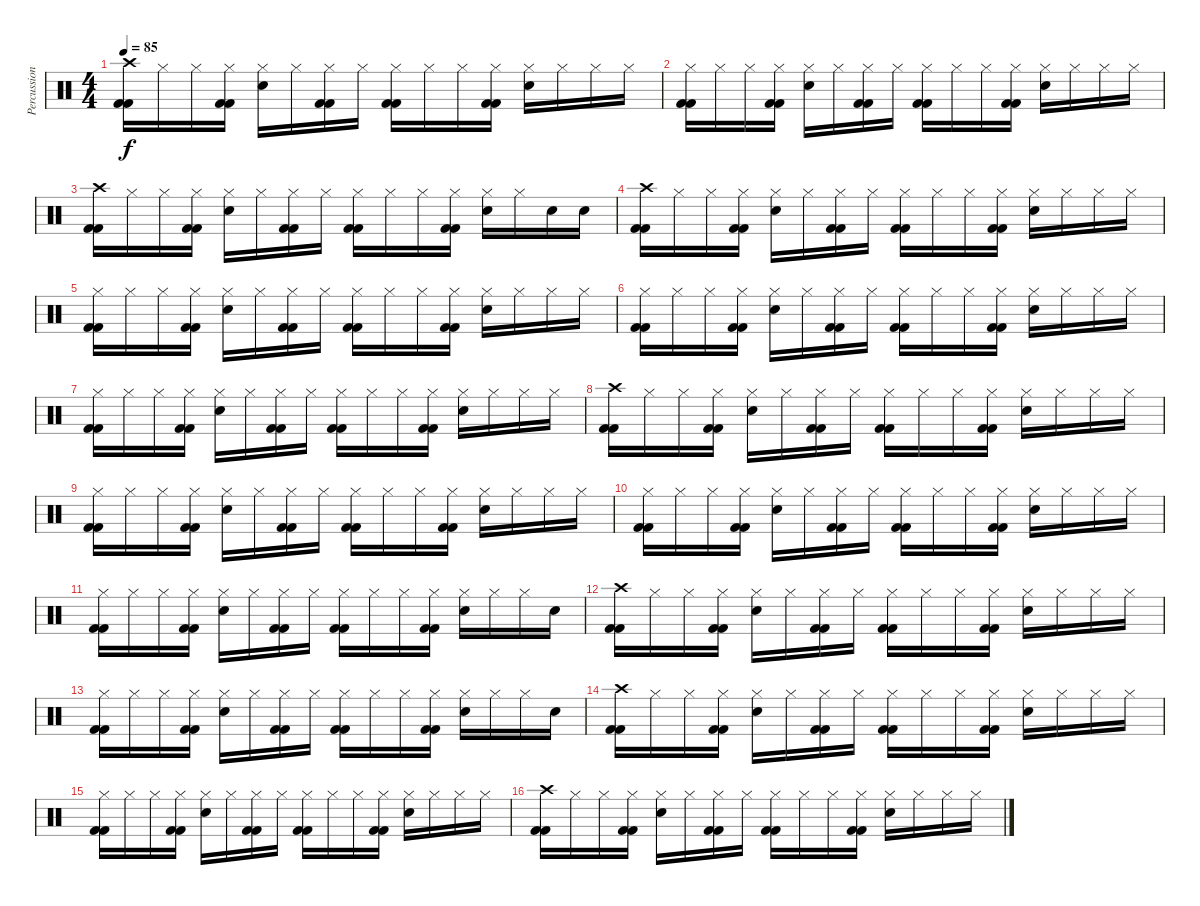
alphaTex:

\track ("Percussion" "Percussion") {instrument percussion}
\staff {score}
\articulation defaults
\ts (4 4)
\tempo 85
\clef neutral
\ks c
("Crash high (hit)" "Kick (hit) 2" "Kick (hit) 2").16{dy f} "Hi-Hat (closed)".16 "Hi-Hat (closed)".16 ("Kick (hit) 2" "Hi-Hat (closed)" "Kick (hit) 2").16 ("Hi-Hat (closed)" "Electric Snare (hit)").16 "Hi-Hat (closed)".16 ("Kick (hit) 2" "Hi-Hat (closed)" "Kick (hit) 2").16 "Hi-Hat (closed)".16 ("Kick (hit) 2" "Hi-Hat (closed)" "Kick (hit) 2").16 "Hi-Hat (closed)".16 "Hi-Hat (closed)".16 ("Kick (hit) 2" "Hi-Hat (closed)" "Kick (hit) 2").16 ("Hi-Hat (closed)" "Electric Snare (hit)").16 "Hi-Hat (closed)".16 "Hi-Hat (closed)".16 "Hi-Hat (closed)".16 |
("Kick (hit) 2" "Hi-Hat (closed)" "Kick (hit) 2").16 "Hi-Hat (closed)".16 "Hi-Hat (closed)".16 ("Kick (hit) 2" "Hi-Hat (closed)" "Kick (hit) 2").16 ("Hi-Hat (closed)" "Electric Snare (hit)").16 "Hi-Hat (closed)".16 ("Kick (hit) 2" "Hi-Hat (closed)" "Kick (hit) 2").16 "Hi-Hat (closed)".16 ("Kick (hit) 2" "Hi-Hat (closed)" "Kick (hit) 2").16 "Hi-Hat (closed)".16 "Hi-Hat (closed)".16 ("Kick (hit) 2" "Hi-Hat (closed)" "Kick (hit) 2").16 ("Hi-Hat (closed)" "Electric Snare (hit)").16 "Hi-Hat (closed)".16 "Hi-Hat (closed)".16 "Hi-Hat (closed)".16 |
("Crash high (hit)" "Kick (hit) 2" "Kick (hit) 2").16 "Hi-Hat (closed)".16 "Hi-Hat (closed)".16 ("Kick (hit) 2" "Hi-Hat (closed)" "Kick (hit) 2").16 ("Hi-Hat (closed)" "Electric Snare (hit)").16 "Hi-Hat (closed)".16 ("Kick (hit) 2" "Hi-Hat (closed)" "Kick (hit) 2").16 "Hi-Hat (closed)".16 ("Kick (hit) 2" "Hi-Hat (closed)" "Kick (hit) 2").16 "Hi-Hat (closed)".16 "Hi-Hat (closed)".16 ("Kick (hit) 2" "Hi-Hat (closed)" "Kick (hit) 2").16 ("Hi-Hat (closed)" "Electric Snare (hit)").16 "Hi-Hat (closed)".16 "Electric Snare (hit)".16 "Electric Snare (hit)".16 |
("Crash high (hit)" "Kick (hit) 2" "Kick (hit) 2").16 "Hi-Hat (closed)".16 "Hi-Hat (closed)".16 ("Kick (hit) 2" "Hi-Hat (closed)" "Kick (hit) 2").16 ("Hi-Hat (closed)" "Electric Snare (hit)").16 "Hi-Hat (closed)".16 ("Kick (hit) 2" "Hi-Hat (closed)" "Kick (hit) 2").16 "Hi-Hat (closed)".16 ("Kick (hit) 2" "Hi-Hat (closed)" "Kick (hit) 2").16 "Hi-Hat (closed)".16 "Hi-Hat (closed)".16 ("Kick (hit) 2" "Hi-Hat (closed)" "Kick (hit) 2").16 ("Hi-Hat (closed)" "Electric Snare (hit)").16 "Hi-Hat (closed)".16 "Hi-Hat (closed)".16 "Hi-Hat (closed)".16 |
("Kick (hit) 2" "Hi-Hat (closed)" "Kick (hit) 2").16 "Hi-Hat (closed)".16 "Hi-Hat (closed)".16 ("Kick (hit) 2" "Hi-Hat (closed)" "Kick (hit) 2").16 ("Hi-Hat (closed)" "Electric Snare (hit)").16 "Hi-Hat (closed)".16 ("Kick (hit) 2" "Hi-Hat (closed)" "Kick (hit) 2").16 "Hi-Hat (closed)".16 ("Kick (hit) 2" "Hi-Hat (closed)" "Kick (hit) 2").16 "Hi-Hat (closed)".16 "Hi-Hat (closed)".16 ("Kick (hit) 2" "Hi-Hat (closed)" "Kick (hit) 2").16 ("Hi-Hat (closed)" "Electric Snare (hit)").16 "Hi-Hat (closed)".16 "Hi-Hat (closed)".16 "Hi-Hat (closed)".16 |
("Kick (hit) 2" "Hi-Hat (closed)" "Kick (hit) 2").16 "Hi-Hat (closed)".16 "Hi-Hat (closed)".16 ("Kick (hit) 2" "Hi-Hat (closed)" "Kick (hit) 2").16 ("Hi-Hat (closed)" "Electric Snare (hit)").16 "Hi-Hat (closed)".16 ("Kick (hit) 2" "Hi-Hat (closed)" "Kick (hit) 2").16 "Hi-Hat (closed)".16 ("Kick (hit) 2" "Hi-Hat (closed)" "Kick (hit) 2").16 "Hi-Hat (closed)".16 "Hi-Hat (closed)".16 ("Kick (hit) 2" "Hi-Hat (closed)" "Kick (hit) 2").16 ("Hi-Hat (closed)" "Electric Snare (hit)").16 "Hi-Hat (closed)".16 "Hi-Hat (closed)".16 "Hi-Hat (closed)".16 |
("Kick (hit) 2" "Hi-Hat (closed)" "Kick (hit) 2").16 "Hi-Hat (closed)".16 "Hi-Hat (closed)".16 ("Kick (hit) 2" "Hi-Hat (closed)" "Kick (hit) 2").16 ("Hi-Hat (closed)" "Electric Snare (hit)").16 "Hi-Hat (closed)".16 ("Kick (hit) 2" "Hi-Hat (closed)" "Kick (hit) 2").16 "Hi-Hat (closed)".16 ("Kick (hit) 2" "Hi-Hat (closed)" "Kick (hit) 2").16 "Hi-Hat (closed)".16 "Hi-Hat (closed)".16 ("Kick (hit) 2" "Hi-Hat (closed)" "Kick (hit) 2").16 ("Hi-Hat (closed)" "Electric Snare (hit)").16 "Hi-Hat (closed)".16 "Hi-Hat (closed)".16 "Hi-Hat (closed)".16 |
("Crash high (hit)" "Kick (hit) 2" "Kick (hit) 2").16 "Hi-Hat (closed)".16 "Hi-Hat (closed)".16 ("Kick (hit) 2" "Hi-Hat (closed)" "Kick (hit) 2").16 ("Hi-Hat (closed)" "Electric Snare (hit)").16 "Hi-Hat (closed)".16 ("Kick (hit) 2" "Hi-Hat (closed)" "Kick (hit) 2").16 "Hi-Hat (closed)".16 ("Kick (hit) 2" "Hi-Hat (closed)" "Kick (hit) 2").16 "Hi-Hat (closed)".16 "Hi-Hat (closed)".16 ("Kick (hit) 2" "Hi-Hat (closed)" "Kick (hit) 2").16 ("Hi-Hat (closed)" "Electric Snare (hit)").16 "Hi-Hat (closed)".16 "Hi-Hat (closed)".16 "Hi-Hat (closed)".16 |
("Kick (hit) 2" "Hi-Hat (closed)" "Kick (hit) 2").16 "Hi-Hat (closed)".16 "Hi-Hat (closed)".16 ("Kick (hit) 2" "Hi-Hat (closed)" "Kick (hit) 2").16 ("Hi-Hat (closed)" "Electric Snare (hit)").16 "Hi-Hat (closed)".16 ("Kick (hit) 2" "Hi-Hat (closed)" "Kick (hit) 2").16 "Hi-Hat (closed)".16 ("Kick (hit) 2" "Hi-Hat (closed)" "Kick (hit) 2").16 "Hi-Hat (closed)".16 "Hi-Hat (closed)".16 ("Kick (hit) 2" "Hi-Hat (closed)" "Kick (hit) 2").16 ("Hi-Hat (closed)" "Electric Snare (hit)").16 "Hi-Hat (closed)".16 "Hi-Hat (closed)".16 "Hi-Hat (closed)".16 |
("Kick (hit) 2" "Hi-Hat (closed)" "Kick (hit) 2").16 "Hi-Hat (closed)".16 "Hi-Hat (closed)".16 ("Kick (hit) 2" "Hi-Hat (closed)" "Kick (hit) 2").16 ("Hi-Hat (closed)" "Electric Snare (hit)").16 "Hi-Hat (closed)".16 ("Kick (hit) 2" "Hi-Hat (closed)" "Kick (hit) 2").16 "Hi-Hat (closed)".16 ("Kick (hit) 2" "Hi-Hat (closed)" "Kick (hit) 2").16 "Hi-Hat (closed)".16 "Hi-Hat (closed)".16 ("Kick (hit) 2" "Hi-Hat (closed)" "Kick (hit) 2").16 ("Hi-Hat (closed)" "Electric Snare (hit)").16 "Hi-Hat (closed)".16 "Hi-Hat (closed)".16 "Hi-Hat (closed)".16 |
("Kick (hit) 2" "Hi-Hat (closed)" "Kick (hit) 2").16 "Hi-Hat (closed)".16 "Hi-Hat (closed)".16 ("Kick (hit) 2" "Hi-Hat (closed)" "Kick (hit) 2").16 ("Hi-Hat (closed)" "Electric Snare (hit)").16 "Hi-Hat (closed)".16 ("Kick (hit) 2" "Hi-Hat (closed)" "Kick (hit) 2").16 "Hi-Hat (closed)".16 ("Kick (hit) 2" "Hi-Hat (closed)" "Kick (hit) 2").16 "Hi-Hat (closed)".16 "Hi-Hat (closed)".16 ("Kick (hit) 2" "Hi-Hat (closed)" "Kick (hit) 2").16 ("Hi-Hat (closed)" "Electric Snare (hit)").16 "Hi-Hat (closed)".16 "Hi-Hat (closed)".16 "Electric Snare (hit)".16 |
("Crash high (hit)" "Kick (hit) 2" "Kick (hit) 2").16 "Hi-Hat (closed)".16 "Hi-Hat (closed)".16 ("Kick (hit) 2" "Hi-Hat (closed)" "Kick (hit) 2").16 ("Hi-Hat (closed)" "Electric Snare (hit)").16 "Hi-Hat (closed)".16 ("Kick (hit) 2" "Hi-Hat (closed)" "Kick (hit) 2").16 "Hi-Hat (closed)".16 ("Kick (hit) 2" "Hi-Hat (closed)" "Kick (hit) 2").16 "Hi-Hat (closed)".16 "Hi-Hat (closed)".16 ("Kick (hit) 2" "Hi-Hat (closed)" "Kick (hit) 2").16 ("Hi-Hat (closed)" "Electric Snare (hit)").16 "Hi-Hat (closed)".16 "Hi-Hat (closed)".16 "Hi-Hat (closed)".16 |
("Kick (hit) 2" "Hi-Hat (closed)" "Kick (hit) 2").16 "Hi-Hat (closed)".16 "Hi-Hat (closed)".16 ("Kick (hit) 2" "Hi-Hat (closed)" "Kick (hit) 2").16 ("Hi-Hat (closed)" "Electric Snare (hit)").16 "Hi-Hat (closed)".16 ("Kick (hit) 2" "Hi-Hat (closed)" "Kick (hit) 2").16 "Hi-Hat (closed)".16 ("Kick (hit) 2" "Hi-Hat (closed)" "Kick (hit) 2").16 "Hi-Hat (closed)".16 "Hi-Hat (closed)".16 ("Kick (hit) 2" "Hi-Hat (closed)" "Kick (hit) 2").16 ("Hi-Hat (closed)" "Electric Snare (hit)").16 "Hi-Hat (closed)".16 "Hi-Hat (closed)".16 "Electric Snare (hit)".16 |
("Crash high (hit)" "Kick (hit) 2" "Kick (hit) 2").16 "Hi-Hat (closed)".16 "Hi-Hat (closed)".16 ("Kick (hit) 2" "Hi-Hat (closed)" "Kick (hit) 2").16 ("Hi-Hat (closed)" "Electric Snare (hit)").16 "Hi-Hat (closed)".16 ("Kick (hit) 2" "Hi-Hat (closed)" "Kick (hit) 2").16 "Hi-Hat (closed)".16 ("Kick (hit) 2" "Hi-Hat (closed)" "Kick (hit) 2").16 "Hi-Hat (closed)".16 "Hi-Hat (closed)".16 ("Kick (hit) 2" "Hi-Hat (closed)" "Kick (hit) 2").16 ("Hi-Hat (closed)" "Electric Snare (hit)").16 "Hi-Hat (closed)".16 "Hi-Hat (closed)".16 "Hi-Hat (closed)".16 |
("Kick (hit) 2" "Hi-Hat (closed)" "Kick (hit) 2").16 "Hi-Hat (closed)".16 "Hi-Hat (closed)".16 ("Kick (hit) 2" "Hi-Hat (closed)" "Kick (hit) 2").16 ("Hi-Hat (closed)" "Electric Snare (hit)").16 "Hi-Hat (closed)".16 ("Kick (hit) 2" "Hi-Hat (closed)" "Kick (hit) 2").16 "Hi-Hat (closed)".16 ("Kick (hit) 2" "Hi-Hat (closed)" "Kick (hit) 2").16 "Hi-Hat (closed)".16 "Hi-Hat (closed)".16 ("Kick (hit) 2" "Hi-Hat (closed)" "Kick (hit) 2").16 ("Hi-Hat (closed)" "Electric Snare (hit)").16 "Hi-Hat (closed)".16 "Hi-Hat (closed)".16 "Hi-Hat (closed)".16 |
("Crash high (hit)" "Kick (hit) 2" "Kick (hit) 2").16 "Hi-Hat (closed)".16 "Hi-Hat (closed)".16 ("Kick (hit) 2" "Hi-Hat (closed)" "Kick (hit) 2").16 ("Hi-Hat (closed)" "Electric Snare (hit)").16 "Hi-Hat (closed)".16 ("Kick (hit) 2" "Hi-Hat (closed)" "Kick (hit) 2").16 "Hi-Hat (closed)".16 ("Kick (hit) 2" "Hi-Hat (closed)" "Kick (hit) 2").16 "Hi-Hat (closed)".16 "Hi-Hat (closed)".16 ("Kick (hit) 2" "Hi-Hat (closed)" "Kick (hit) 2").16 ("Hi-Hat (closed)" "Electric Snare (hit)").16 "Hi-Hat (closed)".16 "Hi-Hat (closed)".16 "Hi-Hat (closed)".16
